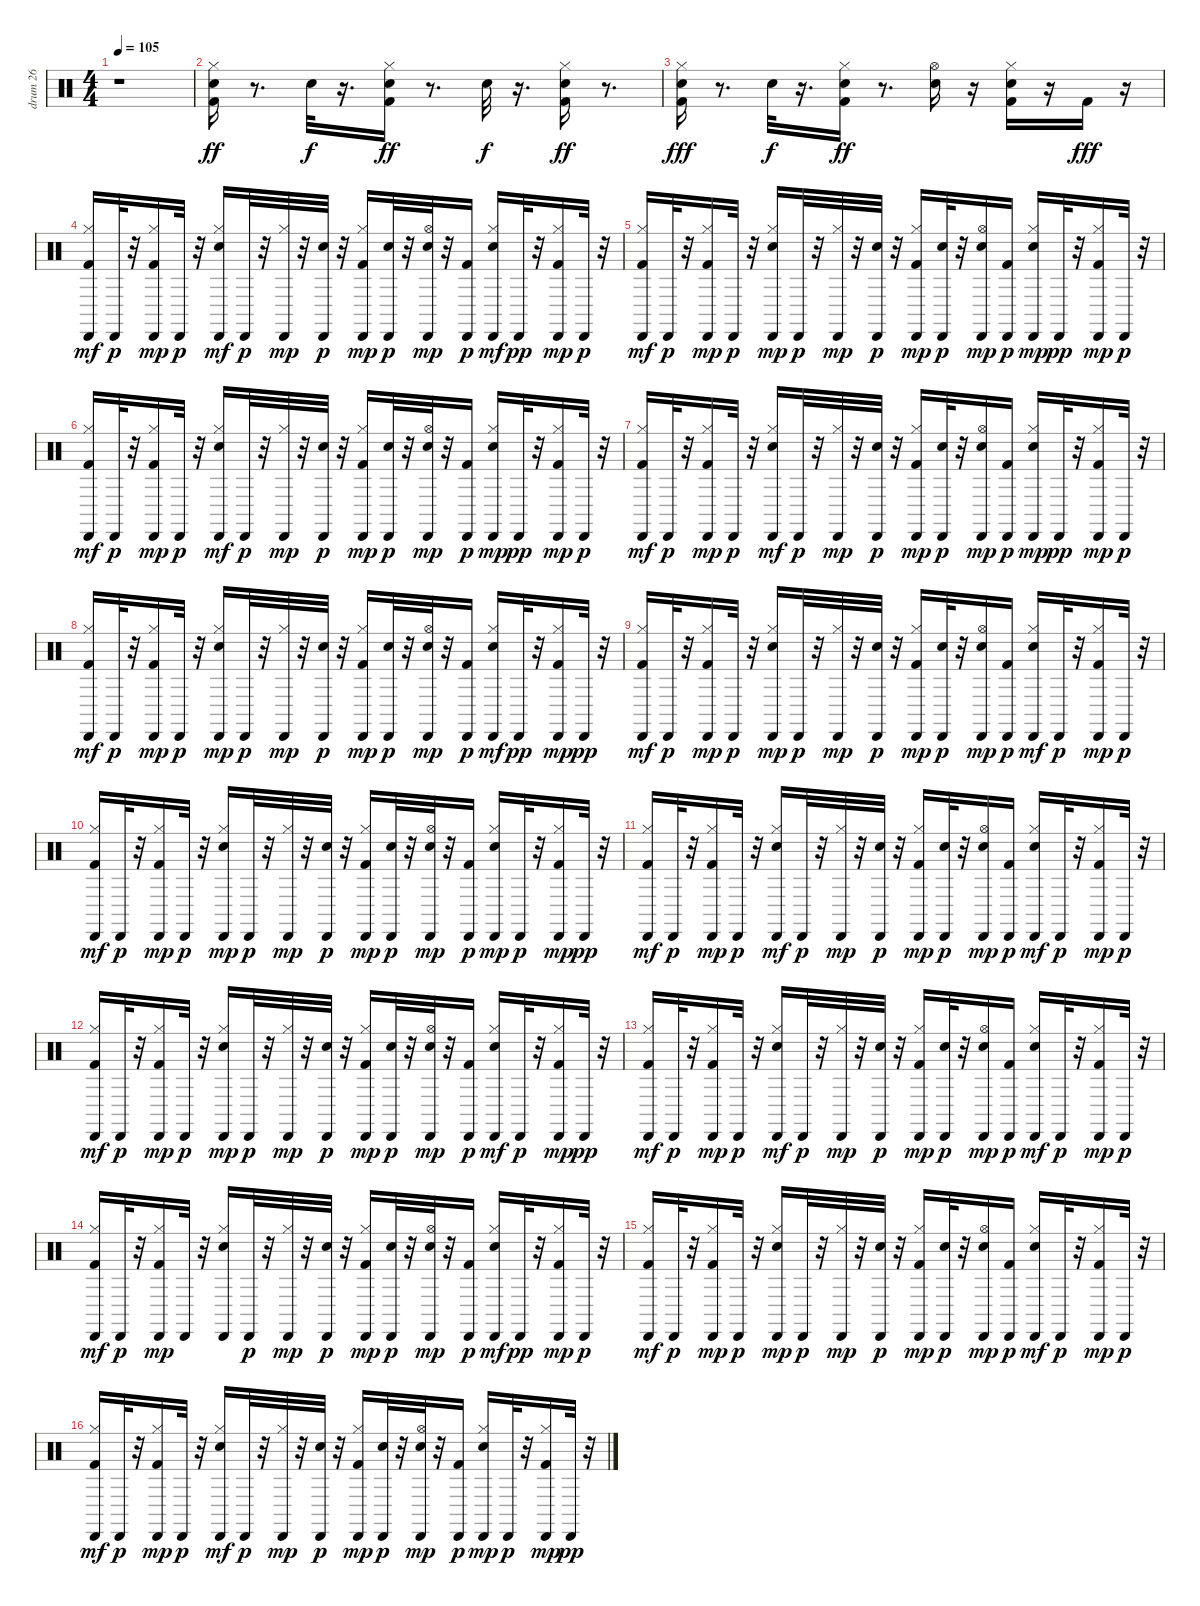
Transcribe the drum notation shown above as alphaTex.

\track ("drum 26" "drum 26") {instrument percussion}
\staff {score}
\articulation defaults
\ts (4 4)
\tempo 105
\clef neutral
\ks c
r.1{dy ff} |
("Kick (hit) 2" "Snare (hit) 2" "Hi-Hat (closed)").16 r.8{d} "Snare (hit) 2".32{dy f} r.16{d} ("Kick (hit) 2" "Snare (hit) 2" "Hi-Hat (closed)").16{dy ff} r.8{d} "Snare (hit) 2".32{dy f} r.16{d} ("Kick (hit) 2" "Snare (hit) 2" "Hi-Hat (closed)").16{dy ff} r.8{d} |
("Kick (hit) 2" "Snare (hit) 2" "Hi-Hat (closed)").16{dy fff} r.8{d} "Snare (hit) 2".32{dy f} r.16{d} ("Kick (hit) 2" "Snare (hit) 2" "Hi-Hat (closed)").16{dy ff} r.8{d} ("Snare (hit) 2" "Hi-Hat (open)").16 r.16 ("Kick (hit) 2" "Snare (hit) 2" "Hi-Hat (closed)").16 r.16 "Kick (hit) 2".16{dy fff} r.16 |
("Kick (hit) 2" "Hi-Hat (closed)" "Cabasa (hit)").16{dy mf} "Cabasa (hit)".32{dy p} r.32 ("Kick (hit) 2" "Hi-Hat (closed)" "Cabasa (hit)").16{dy mp} "Cabasa (hit)".32{dy p} r.32 ("Snare (hit) 2" "Hi-Hat (closed)" "Cabasa (hit)").16{dy mf} "Cabasa (hit)".32{dy p} r.32 ("Hi-Hat (closed)" "Cabasa (hit)").32{dy mp} r.32 ("Electric Snare (hit)" "Cabasa (hit)").32{dy p} r.32 ("Kick (hit) 2" "Hi-Hat (closed)" "Cabasa (hit)").16{dy mp} ("Electric Snare (hit)" "Cabasa (hit)").32{dy p} r.32 ("Electric Snare (hit)" "Hi-Hat (open)" "Cabasa (hit)").32{dy mp} r.32 ("Kick (hit) 2" "Cabasa (hit)").16{dy p} ("Snare (hit) 2" "Hi-Hat (closed)" "Cabasa (hit)").16{dy mf} "Cabasa (hit)".32{dy pp} r.32 ("Kick (hit) 2" "Hi-Hat (closed)" "Cabasa (hit)").16{dy mp} "Cabasa (hit)".32{dy p} r.32 |
("Kick (hit) 2" "Hi-Hat (closed)" "Cabasa (hit)").16{dy mf} "Cabasa (hit)".32{dy p} r.32 ("Kick (hit) 2" "Hi-Hat (closed)" "Cabasa (hit)").16{dy mp} "Cabasa (hit)".32{dy p} r.32 ("Snare (hit) 2" "Hi-Hat (closed)" "Cabasa (hit)").16{dy mp} "Cabasa (hit)".32{dy p} r.32 ("Hi-Hat (closed)" "Cabasa (hit)").32{dy mp} r.32 ("Electric Snare (hit)" "Cabasa (hit)").32{dy p} r.32 ("Kick (hit) 2" "Hi-Hat (closed)" "Cabasa (hit)").16{dy mp} ("Electric Snare (hit)" "Cabasa (hit)").32{dy p} r.32 ("Electric Snare (hit)" "Hi-Hat (open)" "Cabasa (hit)").16{dy mp} ("Kick (hit) 2" "Cabasa (hit)").16{dy p} ("Snare (hit) 2" "Hi-Hat (closed)" "Cabasa (hit)").16{dy mp} "Cabasa (hit)".32{dy pp} r.32 ("Kick (hit) 2" "Hi-Hat (closed)" "Cabasa (hit)").16{dy mp} "Cabasa (hit)".32{dy p} r.32 |
("Kick (hit) 2" "Hi-Hat (closed)" "Cabasa (hit)").16{dy mf} "Cabasa (hit)".32{dy p} r.32 ("Kick (hit) 2" "Hi-Hat (closed)" "Cabasa (hit)").16{dy mp} "Cabasa (hit)".32{dy p} r.32 ("Snare (hit) 2" "Hi-Hat (closed)" "Cabasa (hit)").16{dy mf} "Cabasa (hit)".32{dy p} r.32 ("Hi-Hat (closed)" "Cabasa (hit)").32{dy mp} r.32 ("Electric Snare (hit)" "Cabasa (hit)").32{dy p} r.32 ("Kick (hit) 2" "Hi-Hat (closed)" "Cabasa (hit)").16{dy mp} ("Electric Snare (hit)" "Cabasa (hit)").32{dy p} r.32 ("Electric Snare (hit)" "Hi-Hat (open)" "Cabasa (hit)").32{dy mp} r.32 ("Kick (hit) 2" "Cabasa (hit)").16{dy p} ("Snare (hit) 2" "Hi-Hat (closed)" "Cabasa (hit)").16{dy mp} "Cabasa (hit)".32{dy pp} r.32 ("Kick (hit) 2" "Hi-Hat (closed)" "Cabasa (hit)").16{dy mp} "Cabasa (hit)".32{dy p} r.32 |
("Kick (hit) 2" "Hi-Hat (closed)" "Cabasa (hit)").16{dy mf} "Cabasa (hit)".32{dy p} r.32 ("Kick (hit) 2" "Hi-Hat (closed)" "Cabasa (hit)").16{dy mp} "Cabasa (hit)".32{dy p} r.32 ("Snare (hit) 2" "Hi-Hat (closed)" "Cabasa (hit)").16{dy mf} "Cabasa (hit)".32{dy p} r.32 ("Hi-Hat (closed)" "Cabasa (hit)").32{dy mp} r.32 ("Electric Snare (hit)" "Cabasa (hit)").32{dy p} r.32 ("Kick (hit) 2" "Hi-Hat (closed)" "Cabasa (hit)").16{dy mp} ("Electric Snare (hit)" "Cabasa (hit)").32{dy p} r.32 ("Electric Snare (hit)" "Hi-Hat (open)" "Cabasa (hit)").16{dy mp} ("Kick (hit) 2" "Cabasa (hit)").16{dy p} ("Snare (hit) 2" "Hi-Hat (closed)" "Cabasa (hit)").16{dy mp} "Cabasa (hit)".32{dy pp} r.32 ("Kick (hit) 2" "Hi-Hat (closed)" "Cabasa (hit)").16{dy mp} "Cabasa (hit)".32{dy p} r.32 |
("Kick (hit) 2" "Hi-Hat (closed)" "Cabasa (hit)").16{dy mf} "Cabasa (hit)".32{dy p} r.32 ("Kick (hit) 2" "Hi-Hat (closed)" "Cabasa (hit)").16{dy mp} "Cabasa (hit)".32{dy p} r.32 ("Snare (hit) 2" "Hi-Hat (closed)" "Cabasa (hit)").16{dy mp} "Cabasa (hit)".32{dy p} r.32 ("Hi-Hat (closed)" "Cabasa (hit)").32{dy mp} r.32 ("Electric Snare (hit)" "Cabasa (hit)").32{dy p} r.32 ("Kick (hit) 2" "Hi-Hat (closed)" "Cabasa (hit)").16{dy mp} ("Electric Snare (hit)" "Cabasa (hit)").32{dy p} r.32 ("Electric Snare (hit)" "Hi-Hat (open)" "Cabasa (hit)").32{dy mp} r.32 ("Kick (hit) 2" "Cabasa (hit)").16{dy p} ("Snare (hit) 2" "Hi-Hat (closed)" "Cabasa (hit)").16{dy mf} "Cabasa (hit)".32{dy pp} r.32 ("Kick (hit) 2" "Hi-Hat (closed)" "Cabasa (hit)").16{dy mp} "Cabasa (hit)".32{dy pp} r.32 |
("Kick (hit) 2" "Hi-Hat (closed)" "Cabasa (hit)").16{dy mf} "Cabasa (hit)".32{dy p} r.32 ("Kick (hit) 2" "Hi-Hat (closed)" "Cabasa (hit)").16{dy mp} "Cabasa (hit)".32{dy p} r.32 ("Snare (hit) 2" "Hi-Hat (closed)" "Cabasa (hit)").16{dy mp} "Cabasa (hit)".32{dy p} r.32 ("Hi-Hat (closed)" "Cabasa (hit)").32{dy mp} r.32 ("Electric Snare (hit)" "Cabasa (hit)").32{dy p} r.32 ("Kick (hit) 2" "Hi-Hat (closed)" "Cabasa (hit)").16{dy mp} ("Electric Snare (hit)" "Cabasa (hit)").32{dy p} r.32 ("Electric Snare (hit)" "Hi-Hat (open)" "Cabasa (hit)").16{dy mp} ("Kick (hit) 2" "Cabasa (hit)").16{dy p} ("Snare (hit) 2" "Hi-Hat (closed)" "Cabasa (hit)").16{dy mf} "Cabasa (hit)".32{dy p} r.32 ("Kick (hit) 2" "Hi-Hat (closed)" "Cabasa (hit)").16{dy mp} "Cabasa (hit)".32{dy p} r.32 |
("Kick (hit) 2" "Hi-Hat (closed)" "Cabasa (hit)").16{dy mf} "Cabasa (hit)".32{dy p} r.32 ("Kick (hit) 2" "Hi-Hat (closed)" "Cabasa (hit)").16{dy mp} "Cabasa (hit)".32{dy p} r.32 ("Snare (hit) 2" "Hi-Hat (closed)" "Cabasa (hit)").16{dy mp} "Cabasa (hit)".32{dy p} r.32 ("Hi-Hat (closed)" "Cabasa (hit)").32{dy mp} r.32 ("Electric Snare (hit)" "Cabasa (hit)").32{dy p} r.32 ("Kick (hit) 2" "Hi-Hat (closed)" "Cabasa (hit)").16{dy mp} ("Electric Snare (hit)" "Cabasa (hit)").32{dy p} r.32 ("Electric Snare (hit)" "Hi-Hat (open)" "Cabasa (hit)").32{dy mp} r.32 ("Kick (hit) 2" "Cabasa (hit)").16{dy p} ("Snare (hit) 2" "Hi-Hat (closed)" "Cabasa (hit)").16{dy mp} "Cabasa (hit)".32{dy p} r.32 ("Kick (hit) 2" "Hi-Hat (closed)" "Cabasa (hit)").16{dy mp} "Cabasa (hit)".32{dy pp} r.32 |
("Kick (hit) 2" "Hi-Hat (closed)" "Cabasa (hit)").16{dy mf} "Cabasa (hit)".32{dy p} r.32 ("Kick (hit) 2" "Hi-Hat (closed)" "Cabasa (hit)").16{dy mp} "Cabasa (hit)".32{dy p} r.32 ("Snare (hit) 2" "Hi-Hat (closed)" "Cabasa (hit)").16{dy mf} "Cabasa (hit)".32{dy p} r.32 ("Hi-Hat (closed)" "Cabasa (hit)").32{dy mp} r.32 ("Electric Snare (hit)" "Cabasa (hit)").32{dy p} r.32 ("Kick (hit) 2" "Hi-Hat (closed)" "Cabasa (hit)").16{dy mp} ("Electric Snare (hit)" "Cabasa (hit)").32{dy p} r.32 ("Electric Snare (hit)" "Hi-Hat (open)" "Cabasa (hit)").16{dy mp} ("Kick (hit) 2" "Cabasa (hit)").16{dy p} ("Snare (hit) 2" "Hi-Hat (closed)" "Cabasa (hit)").16{dy mf} "Cabasa (hit)".32{dy p} r.32 ("Kick (hit) 2" "Hi-Hat (closed)" "Cabasa (hit)").16{dy mp} "Cabasa (hit)".32{dy p} r.32 |
("Kick (hit) 2" "Hi-Hat (closed)" "Cabasa (hit)").16{dy mf} "Cabasa (hit)".32{dy p} r.32 ("Kick (hit) 2" "Hi-Hat (closed)" "Cabasa (hit)").16{dy mp} "Cabasa (hit)".32{dy p} r.32 ("Snare (hit) 2" "Hi-Hat (closed)" "Cabasa (hit)").16{dy mp} "Cabasa (hit)".32{dy p} r.32 ("Hi-Hat (closed)" "Cabasa (hit)").32{dy mp} r.32 ("Electric Snare (hit)" "Cabasa (hit)").32{dy p} r.32 ("Kick (hit) 2" "Hi-Hat (closed)" "Cabasa (hit)").16{dy mp} ("Electric Snare (hit)" "Cabasa (hit)").32{dy p} r.32 ("Electric Snare (hit)" "Hi-Hat (open)" "Cabasa (hit)").32{dy mp} r.32 ("Kick (hit) 2" "Cabasa (hit)").16{dy p} ("Snare (hit) 2" "Hi-Hat (closed)" "Cabasa (hit)").16{dy mf} "Cabasa (hit)".32{dy p} r.32 ("Kick (hit) 2" "Hi-Hat (closed)" "Cabasa (hit)").16{dy mp} "Cabasa (hit)".32{dy pp} r.32 |
("Kick (hit) 2" "Hi-Hat (closed)" "Cabasa (hit)").16{dy mf} "Cabasa (hit)".32{dy p} r.32 ("Kick (hit) 2" "Hi-Hat (closed)" "Cabasa (hit)").16{dy mp} "Cabasa (hit)".32{dy p} r.32 ("Snare (hit) 2" "Hi-Hat (closed)" "Cabasa (hit)").16{dy mf} "Cabasa (hit)".32{dy p} r.32 ("Hi-Hat (closed)" "Cabasa (hit)").32{dy mp} r.32 ("Electric Snare (hit)" "Cabasa (hit)").32{dy p} r.32 ("Kick (hit) 2" "Hi-Hat (closed)" "Cabasa (hit)").16{dy mp} ("Electric Snare (hit)" "Cabasa (hit)").32{dy p} r.32 ("Electric Snare (hit)" "Hi-Hat (open)" "Cabasa (hit)").16{dy mp} ("Kick (hit) 2" "Cabasa (hit)").16{dy p} ("Snare (hit) 2" "Hi-Hat (closed)" "Cabasa (hit)").16{dy mf} "Cabasa (hit)".32{dy p} r.32 ("Kick (hit) 2" "Hi-Hat (closed)" "Cabasa (hit)").16{dy mp} "Cabasa (hit)".32{dy p} r.32 |
("Kick (hit) 2" "Hi-Hat (closed)" "Cabasa (hit)").16{dy mf} "Cabasa (hit)".32{dy p} r.32 ("Kick (hit) 2" "Hi-Hat (closed)" "Cabasa (hit)").16{dy mp} "Cabasa (hit)".32 r.32 ("Snare (hit) 2" "Hi-Hat (closed)" "Cabasa (hit)").16 "Cabasa (hit)".32{dy p} r.32 ("Hi-Hat (closed)" "Cabasa (hit)").32{dy mp} r.32 ("Electric Snare (hit)" "Cabasa (hit)").32{dy p} r.32 ("Kick (hit) 2" "Hi-Hat (closed)" "Cabasa (hit)").16{dy mp} ("Electric Snare (hit)" "Cabasa (hit)").32{dy p} r.32 ("Electric Snare (hit)" "Hi-Hat (open)" "Cabasa (hit)").32{dy mp} r.32 ("Kick (hit) 2" "Cabasa (hit)").16{dy p} ("Snare (hit) 2" "Hi-Hat (closed)" "Cabasa (hit)").16{dy mf} "Cabasa (hit)".32{dy pp} r.32 ("Kick (hit) 2" "Hi-Hat (closed)" "Cabasa (hit)").16{dy mp} "Cabasa (hit)".32{dy p} r.32 |
("Kick (hit) 2" "Hi-Hat (closed)" "Cabasa (hit)").16{dy mf} "Cabasa (hit)".32{dy p} r.32 ("Kick (hit) 2" "Hi-Hat (closed)" "Cabasa (hit)").16{dy mp} "Cabasa (hit)".32{dy p} r.32 ("Snare (hit) 2" "Hi-Hat (closed)" "Cabasa (hit)").16{dy mp} "Cabasa (hit)".32{dy p} r.32 ("Hi-Hat (closed)" "Cabasa (hit)").32{dy mp} r.32 ("Electric Snare (hit)" "Cabasa (hit)").32{dy p} r.32 ("Kick (hit) 2" "Hi-Hat (closed)" "Cabasa (hit)").16{dy mp} ("Electric Snare (hit)" "Cabasa (hit)").32{dy p} r.32 ("Electric Snare (hit)" "Hi-Hat (open)" "Cabasa (hit)").16{dy mp} ("Kick (hit) 2" "Cabasa (hit)").16{dy p} ("Snare (hit) 2" "Hi-Hat (closed)" "Cabasa (hit)").16{dy mf} "Cabasa (hit)".32{dy p} r.32 ("Kick (hit) 2" "Hi-Hat (closed)" "Cabasa (hit)").16{dy mp} "Cabasa (hit)".32{dy p} r.32 |
("Kick (hit) 2" "Hi-Hat (closed)" "Cabasa (hit)").16{dy mf} "Cabasa (hit)".32{dy p} r.32 ("Kick (hit) 2" "Hi-Hat (closed)" "Cabasa (hit)").16{dy mp} "Cabasa (hit)".32{dy p} r.32 ("Snare (hit) 2" "Hi-Hat (closed)" "Cabasa (hit)").16{dy mf} "Cabasa (hit)".32{dy p} r.32 ("Hi-Hat (closed)" "Cabasa (hit)").32{dy mp} r.32 ("Electric Snare (hit)" "Cabasa (hit)").32{dy p} r.32 ("Kick (hit) 2" "Hi-Hat (closed)" "Cabasa (hit)").16{dy mp} ("Electric Snare (hit)" "Cabasa (hit)").32{dy p} r.32 ("Electric Snare (hit)" "Hi-Hat (open)" "Cabasa (hit)").32{dy mp} r.32 ("Kick (hit) 2" "Cabasa (hit)").16{dy p} ("Snare (hit) 2" "Hi-Hat (closed)" "Cabasa (hit)").16{dy mp} "Cabasa (hit)".32{dy p} r.32 ("Kick (hit) 2" "Hi-Hat (closed)" "Cabasa (hit)").16{dy mp} "Cabasa (hit)".32{dy pp} r.32
